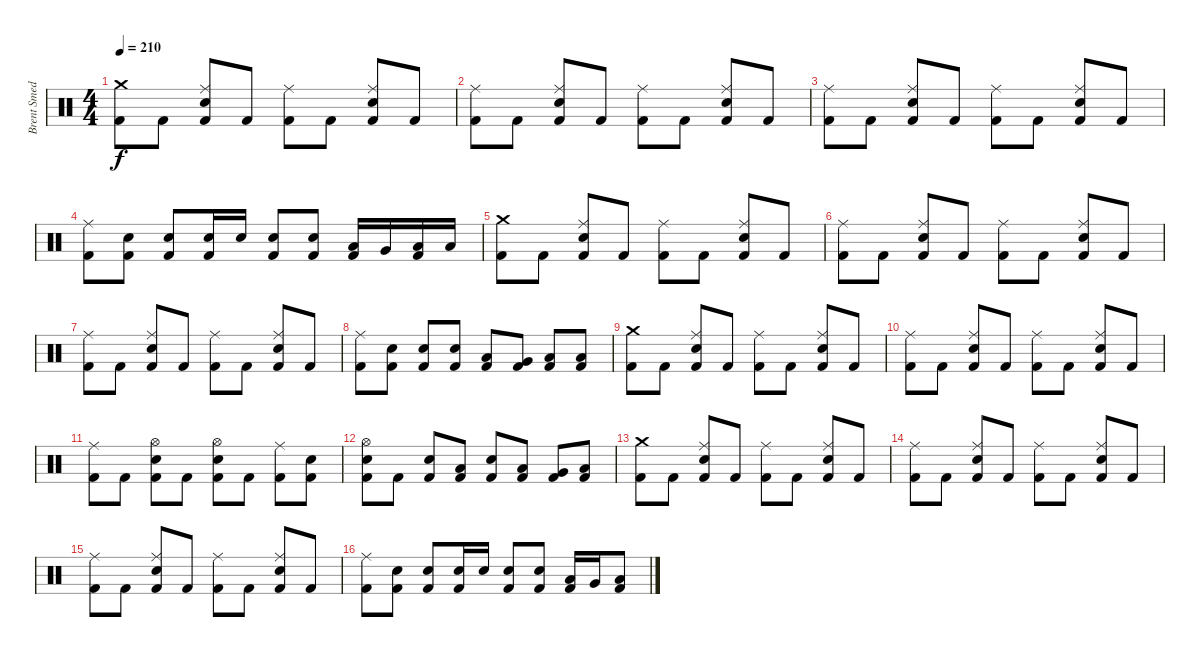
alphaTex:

\track ("Brent Smedley" "Brent Smed") {instrument percussion}
\staff {score}
\articulation defaults
\ts (4 4)
\tempo 210
\clef neutral
\ks c
("Crash medium (hit)" "Kick (hit) 2").8{dy f} "Kick (hit) 2".8 ("Ride (middle)" "Electric Snare (hit)" "Kick (hit) 2").8 "Kick (hit) 2".8 ("Ride (middle)" "Kick (hit) 2").8 "Kick (hit) 2".8 ("Ride (middle)" "Electric Snare (hit)" "Kick (hit) 2").8 "Kick (hit) 2".8 |
("Ride (middle)" "Kick (hit) 2").8 "Kick (hit) 2".8 ("Ride (middle)" "Electric Snare (hit)" "Kick (hit) 2").8 "Kick (hit) 2".8 ("Ride (middle)" "Kick (hit) 2").8 "Kick (hit) 2".8 ("Ride (middle)" "Electric Snare (hit)" "Kick (hit) 2").8 "Kick (hit) 2".8 |
("Ride (middle)" "Kick (hit) 2").8 "Kick (hit) 2".8 ("Ride (middle)" "Electric Snare (hit)" "Kick (hit) 2").8 "Kick (hit) 2".8 ("Ride (middle)" "Kick (hit) 2").8 "Kick (hit) 2".8 ("Ride (middle)" "Electric Snare (hit)" "Kick (hit) 2").8 "Kick (hit) 2".8 |
("Ride (middle)" "Kick (hit) 2").8 ("Electric Snare (hit)" "Kick (hit) 2").8 ("Electric Snare (hit)" "Kick (hit) 2").8 ("Electric Snare (hit)" "Kick (hit) 2").16 "Electric Snare (hit)".16 ("Electric Snare (hit)" "Kick (hit) 2").8 ("Electric Snare (hit)" "Kick (hit) 2").8 ("Low Tom (hit)" "Kick (hit) 2").16 "Very Low Tom (hit)".16 ("Low Floor Tom (hit)" "Kick (hit) 2").16 "Low Floor Tom (hit)".16 |
("Crash medium (hit)" "Kick (hit) 2").8 "Kick (hit) 2".8 ("Ride (middle)" "Electric Snare (hit)" "Kick (hit) 2").8 "Kick (hit) 2".8 ("Ride (middle)" "Kick (hit) 2").8 "Kick (hit) 2".8 ("Ride (middle)" "Electric Snare (hit)" "Kick (hit) 2").8 "Kick (hit) 2".8 |
("Ride (middle)" "Kick (hit) 2").8 "Kick (hit) 2".8 ("Ride (middle)" "Electric Snare (hit)" "Kick (hit) 2").8 "Kick (hit) 2".8 ("Ride (middle)" "Kick (hit) 2").8 "Kick (hit) 2".8 ("Ride (middle)" "Electric Snare (hit)" "Kick (hit) 2").8 "Kick (hit) 2".8 |
("Ride (middle)" "Kick (hit) 2").8 "Kick (hit) 2".8 ("Ride (middle)" "Electric Snare (hit)" "Kick (hit) 2").8 "Kick (hit) 2".8 ("Ride (middle)" "Kick (hit) 2").8 "Kick (hit) 2".8 ("Ride (middle)" "Electric Snare (hit)" "Kick (hit) 2").8 "Kick (hit) 2".8 |
("Ride (middle)" "Kick (hit) 2").8 ("Electric Snare (hit)" "Kick (hit) 2").8 ("Electric Snare (hit)" "Kick (hit) 2").8 ("Electric Snare (hit)" "Kick (hit) 2").8 ("Low Tom (hit)" "Kick (hit) 2").8 ("Very Low Tom (hit)" "Kick (hit) 2").8 ("Low Floor Tom (hit)" "Kick (hit) 2").8 ("Low Floor Tom (hit)" "Kick (hit) 2").8 |
("Crash medium (hit)" "Kick (hit) 2").8 "Kick (hit) 2".8 ("Ride (middle)" "Electric Snare (hit)" "Kick (hit) 2").8 "Kick (hit) 2".8 ("Ride (middle)" "Kick (hit) 2").8 "Kick (hit) 2".8 ("Ride (middle)" "Electric Snare (hit)" "Kick (hit) 2").8 "Kick (hit) 2".8 |
("Ride (middle)" "Kick (hit) 2").8 "Kick (hit) 2".8 ("Ride (middle)" "Electric Snare (hit)" "Kick (hit) 2").8 "Kick (hit) 2".8 ("Ride (middle)" "Kick (hit) 2").8 "Kick (hit) 2".8 ("Ride (middle)" "Electric Snare (hit)" "Kick (hit) 2").8 "Kick (hit) 2".8 |
("Ride (middle)" "Kick (hit) 2").8 "Kick (hit) 2".8 ("Hi-Hat (open)" "Electric Snare (hit)" "Kick (hit) 2").8 "Kick (hit) 2".8 ("Hi-Hat (open)" "Electric Snare (hit)" "Kick (hit) 2").8 "Kick (hit) 2".8 ("Ride (middle)" "Kick (hit) 2").8 ("Electric Snare (hit)" "Kick (hit) 2").8 |
("Hi-Hat (open)" "Electric Snare (hit)" "Kick (hit) 2").8 "Kick (hit) 2".8 ("Electric Snare (hit)" "Kick (hit) 2").8 ("Low Tom (hit)" "Kick (hit) 2").8 ("Electric Snare (hit)" "Kick (hit) 2").8 ("Low Tom (hit)" "Kick (hit) 2").8 ("Very Low Tom (hit)" "Kick (hit) 2").8 ("Low Tom (hit)" "Kick (hit) 2").8 |
("Crash medium (hit)" "Kick (hit) 2").8 "Kick (hit) 2".8 ("Ride (middle)" "Electric Snare (hit)" "Kick (hit) 2").8 "Kick (hit) 2".8 ("Ride (middle)" "Kick (hit) 2").8 "Kick (hit) 2".8 ("Ride (middle)" "Electric Snare (hit)" "Kick (hit) 2").8 "Kick (hit) 2".8 |
("Ride (middle)" "Kick (hit) 2").8 "Kick (hit) 2".8 ("Ride (middle)" "Electric Snare (hit)" "Kick (hit) 2").8 "Kick (hit) 2".8 ("Ride (middle)" "Kick (hit) 2").8 "Kick (hit) 2".8 ("Ride (middle)" "Electric Snare (hit)" "Kick (hit) 2").8 "Kick (hit) 2".8 |
("Ride (middle)" "Kick (hit) 2").8 "Kick (hit) 2".8 ("Ride (middle)" "Electric Snare (hit)" "Kick (hit) 2").8 "Kick (hit) 2".8 ("Ride (middle)" "Kick (hit) 2").8 "Kick (hit) 2".8 ("Ride (middle)" "Electric Snare (hit)" "Kick (hit) 2").8 "Kick (hit) 2".8 |
("Ride (middle)" "Kick (hit) 2").8 ("Electric Snare (hit)" "Kick (hit) 2").8 ("Electric Snare (hit)" "Kick (hit) 2").8 ("Electric Snare (hit)" "Kick (hit) 2").16 "Electric Snare (hit)".16 ("Electric Snare (hit)" "Kick (hit) 2").8 ("Electric Snare (hit)" "Kick (hit) 2").8 ("Low Tom (hit)" "Kick (hit) 2").16 "Very Low Tom (hit)".16 ("Low Floor Tom (hit)" "Kick (hit) 2").8
